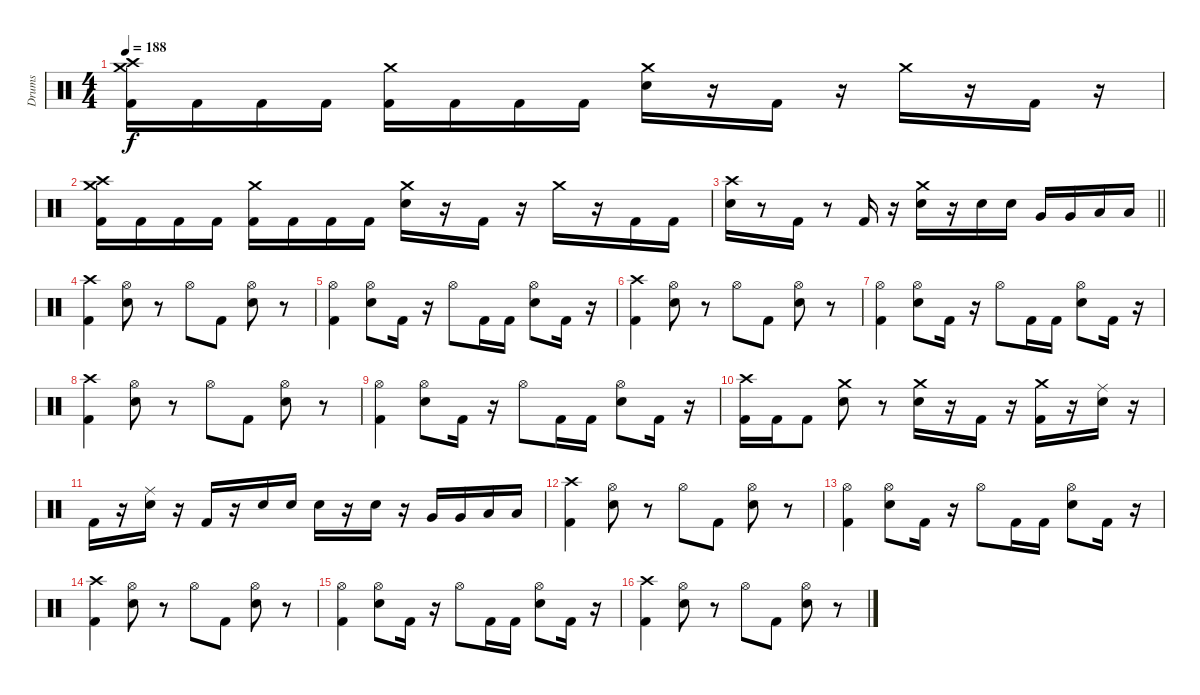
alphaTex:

\track ("Drums" "Drums") {instrument percussion}
\staff {score}
\articulation defaults
\ts (4 4)
\tempo 188
\clef neutral
\ks c
("Kick (hit) 2" "Crash high (hit)" "Crash medium (hit)").16{dy f} "Kick (hit) 2".16 "Kick (hit) 2".16 "Kick (hit) 2".16 ("Kick (hit) 2" "Crash medium (hit)").16 "Kick (hit) 2".16 "Kick (hit) 2".16 "Kick (hit) 2".16 ("Snare (hit) 2" "Crash medium (hit)").16 r.16 "Kick (hit) 2".16 r.16 "Crash medium (hit)".16 r.16 "Kick (hit) 2".16 r.16 |
("Kick (hit) 2" "Crash high (hit)" "Crash medium (hit)").16 "Kick (hit) 2".16 "Kick (hit) 2".16 "Kick (hit) 2".16 ("Kick (hit) 2" "Crash medium (hit)").16 "Kick (hit) 2".16 "Kick (hit) 2".16 "Kick (hit) 2".16 ("Snare (hit) 2" "Crash medium (hit)").16 r.16 "Kick (hit) 2".16 r.16 "Crash medium (hit)".16 r.16 "Kick (hit) 2".16 "Kick (hit) 2".16 |
\barLineRight lightlight
("Snare (hit) 2" "Crash high (hit)").16 r.8 "Kick (hit) 2".16 r.8 "Kick (hit) 2".16 r.16 ("Snare (hit) 2" "Crash medium (hit)").16 r.16 "Snare (hit) 2".16 "Snare (hit) 2".16 "Very Low Tom (hit)".16 "Very Low Tom (hit)".16 "Low Floor Tom (hit)".16 "Low Floor Tom (hit)".16 |
\section ("" " ")
("Kick (hit) 2" "Crash high (hit)").4 ("Snare (hit) 2" "Hi-Hat (open)").8 r.8 "Hi-Hat (open)".8 "Kick (hit) 2".8 ("Snare (hit) 2" "Hi-Hat (open)").8 r.8 |
("Kick (hit) 2" "Hi-Hat (open)").4 ("Snare (hit) 2" "Hi-Hat (open)").8 "Kick (hit) 2".16 r.16 "Hi-Hat (open)".8 "Kick (hit) 2".16 "Kick (hit) 2".16 ("Snare (hit) 2" "Hi-Hat (open)").8 "Kick (hit) 2".16 r.16 |
("Kick (hit) 2" "Crash high (hit)").4 ("Snare (hit) 2" "Hi-Hat (open)").8 r.8 "Hi-Hat (open)".8 "Kick (hit) 2".8 ("Snare (hit) 2" "Hi-Hat (open)").8 r.8 |
("Kick (hit) 2" "Hi-Hat (open)").4 ("Snare (hit) 2" "Hi-Hat (open)").8 "Kick (hit) 2".16 r.16 "Hi-Hat (open)".8 "Kick (hit) 2".16 "Kick (hit) 2".16 ("Snare (hit) 2" "Hi-Hat (open)").8 "Kick (hit) 2".16 r.16 |
("Kick (hit) 2" "Crash high (hit)").4 ("Snare (hit) 2" "Hi-Hat (open)").8 r.8 "Hi-Hat (open)".8 "Kick (hit) 2".8 ("Snare (hit) 2" "Hi-Hat (open)").8 r.8 |
("Kick (hit) 2" "Hi-Hat (open)").4 ("Snare (hit) 2" "Hi-Hat (open)").8 "Kick (hit) 2".16 r.16 "Hi-Hat (open)".8 "Kick (hit) 2".16 "Kick (hit) 2".16 ("Snare (hit) 2" "Hi-Hat (open)").8 "Kick (hit) 2".16 r.16 |
("Kick (hit) 2" "Crash high (hit)").16 "Kick (hit) 2".16 "Kick (hit) 2".8 ("Snare (hit) 2" "Crash medium (hit)").8 r.8 ("Snare (hit) 2" "Crash medium (hit)").16 r.16 "Kick (hit) 2".16 r.16 ("Kick (hit) 2" "Crash medium (hit)").16 r.16 ("Snare (hit) 2" "Ride (middle)").16 r.16 |
"Kick (hit) 2".16 r.16 ("Snare (hit) 2" "Ride (middle)").16 r.16 "Kick (hit) 2".16 r.16 "Snare (hit) 2".16 "Snare (hit) 2".16 "Snare (hit) 2".16 r.16 "Snare (hit) 2".16 r.16 "Very Low Tom (hit)".16 "Very Low Tom (hit)".16 "Low Floor Tom (hit)".16 "Low Floor Tom (hit)".16 |
("Kick (hit) 2" "Crash high (hit)").4 ("Snare (hit) 2" "Hi-Hat (open)").8 r.8 "Hi-Hat (open)".8 "Kick (hit) 2".8 ("Snare (hit) 2" "Hi-Hat (open)").8 r.8 |
("Kick (hit) 2" "Hi-Hat (open)").4 ("Snare (hit) 2" "Hi-Hat (open)").8 "Kick (hit) 2".16 r.16 "Hi-Hat (open)".8 "Kick (hit) 2".16 "Kick (hit) 2".16 ("Snare (hit) 2" "Hi-Hat (open)").8 "Kick (hit) 2".16 r.16 |
("Kick (hit) 2" "Crash high (hit)").4 ("Snare (hit) 2" "Hi-Hat (open)").8 r.8 "Hi-Hat (open)".8 "Kick (hit) 2".8 ("Snare (hit) 2" "Hi-Hat (open)").8 r.8 |
("Kick (hit) 2" "Hi-Hat (open)").4 ("Snare (hit) 2" "Hi-Hat (open)").8 "Kick (hit) 2".16 r.16 "Hi-Hat (open)".8 "Kick (hit) 2".16 "Kick (hit) 2".16 ("Snare (hit) 2" "Hi-Hat (open)").8 "Kick (hit) 2".16 r.16 |
("Kick (hit) 2" "Crash high (hit)").4 ("Snare (hit) 2" "Hi-Hat (open)").8 r.8 "Hi-Hat (open)".8 "Kick (hit) 2".8 ("Snare (hit) 2" "Hi-Hat (open)").8 r.8
